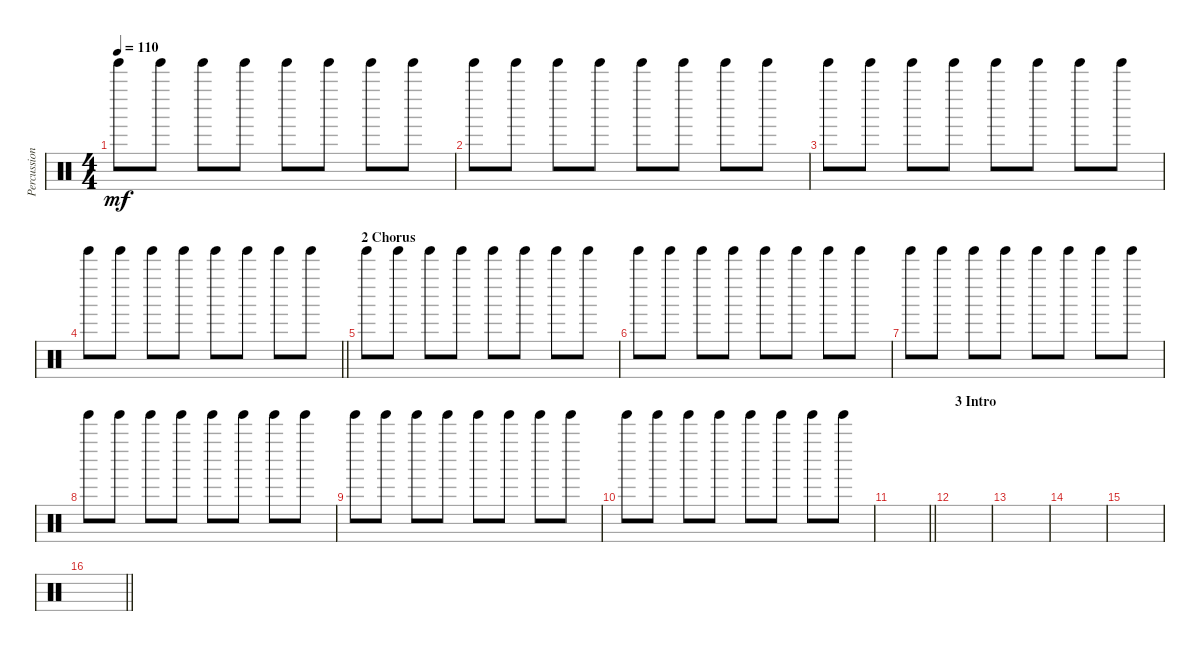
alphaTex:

\track ("Percussion" "Percussion") {instrument percussion}
\staff {score}
\articulation defaults
\ts (4 4)
\tempo 110
\clef neutral
\ks c "Tinkle Bell (hit)".8{dy mf} "Tinkle Bell (hit)".8 "Tinkle Bell (hit)".8 "Tinkle Bell (hit)".8 "Tinkle Bell (hit)".8 "Tinkle Bell (hit)".8 "Tinkle Bell (hit)".8 "Tinkle Bell (hit)".8
|
"Tinkle Bell (hit)".8 "Tinkle Bell (hit)".8 "Tinkle Bell (hit)".8 "Tinkle Bell (hit)".8 "Tinkle Bell (hit)".8 "Tinkle Bell (hit)".8 "Tinkle Bell (hit)".8 "Tinkle Bell (hit)".8 |
"Tinkle Bell (hit)".8 "Tinkle Bell (hit)".8 "Tinkle Bell (hit)".8 "Tinkle Bell (hit)".8 "Tinkle Bell (hit)".8 "Tinkle Bell (hit)".8 "Tinkle Bell (hit)".8 "Tinkle Bell (hit)".8 |
\barLineRight lightlight "Tinkle Bell (hit)".8 "Tinkle Bell (hit)".8 "Tinkle Bell (hit)".8 "Tinkle Bell (hit)".8 "Tinkle Bell (hit)".8 "Tinkle Bell (hit)".8 "Tinkle Bell (hit)".8 "Tinkle Bell (hit)".8
|
\section ("" "2 Chorus")
"Tinkle Bell (hit)".8 "Tinkle Bell (hit)".8 "Tinkle Bell (hit)".8 "Tinkle Bell (hit)".8 "Tinkle Bell (hit)".8 "Tinkle Bell (hit)".8 "Tinkle Bell (hit)".8 "Tinkle Bell (hit)".8 |
"Tinkle Bell (hit)".8 "Tinkle Bell (hit)".8 "Tinkle Bell (hit)".8 "Tinkle Bell (hit)".8 "Tinkle Bell (hit)".8 "Tinkle Bell (hit)".8 "Tinkle Bell (hit)".8 "Tinkle Bell (hit)".8 |
"Tinkle Bell (hit)".8 "Tinkle Bell (hit)".8 "Tinkle Bell (hit)".8 "Tinkle Bell (hit)".8 "Tinkle Bell (hit)".8 "Tinkle Bell (hit)".8 "Tinkle Bell (hit)".8 "Tinkle Bell (hit)".8 |
"Tinkle Bell (hit)".8 "Tinkle Bell (hit)".8 "Tinkle Bell (hit)".8 "Tinkle Bell (hit)".8 "Tinkle Bell (hit)".8 "Tinkle Bell (hit)".8 "Tinkle Bell (hit)".8 "Tinkle Bell (hit)".8 |
"Tinkle Bell (hit)".8 "Tinkle Bell (hit)".8 "Tinkle Bell (hit)".8 "Tinkle Bell (hit)".8 "Tinkle Bell (hit)".8 "Tinkle Bell (hit)".8 "Tinkle Bell (hit)".8 "Tinkle Bell (hit)".8 |
"Tinkle Bell (hit)".8 "Tinkle Bell (hit)".8 "Tinkle Bell (hit)".8 "Tinkle Bell (hit)".8 "Tinkle Bell (hit)".8 "Tinkle Bell (hit)".8 "Tinkle Bell (hit)".8 "Tinkle Bell (hit)".8 |
\barLineRight lightlight
|
\section ("" "3 Intro")
|
|
|
|
\barLineRight lightlight
